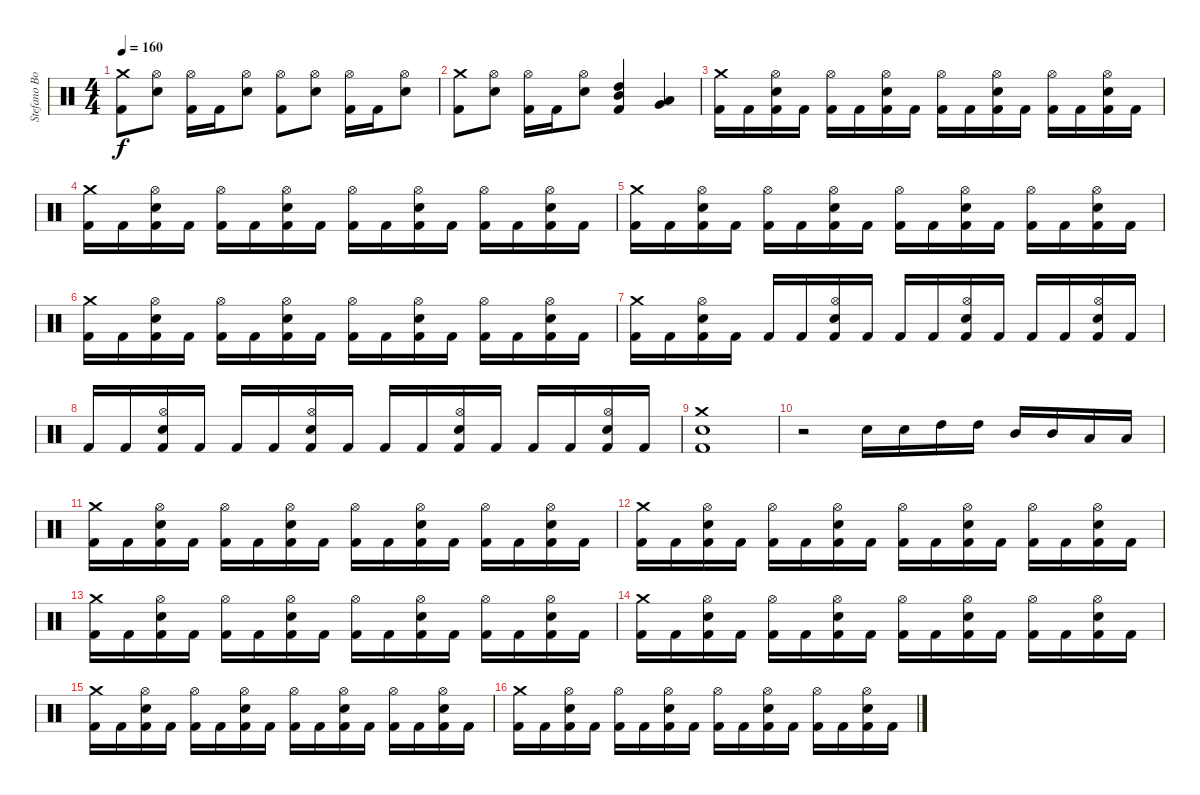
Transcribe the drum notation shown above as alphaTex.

\track ("Stefano Bonini" "Stefano Bo") {instrument percussion}
\staff {score}
\articulation defaults
\ts (4 4)
\tempo 160
\clef neutral
\ks c
("Crash medium (hit)" "Kick (hit) 2").8{dy f} ("Hi-Hat (open)" "Snare (hit) 2").8 ("Hi-Hat (open)" "Kick (hit) 2").16 "Kick (hit) 2".16 ("Hi-Hat (open)" "Snare (hit) 2").8 ("Hi-Hat (open)" "Kick (hit) 2").8 ("Hi-Hat (open)" "Snare (hit) 2").8 ("Hi-Hat (open)" "Kick (hit) 2").16 "Kick (hit) 2".16 ("Hi-Hat (open)" "Snare (hit) 2").8 |
("Crash medium (hit)" "Kick (hit) 2").8 ("Hi-Hat (open)" "Snare (hit) 2").8 ("Hi-Hat (open)" "Kick (hit) 2").16 "Kick (hit) 2".16 ("Hi-Hat (open)" "Snare (hit) 2").8 ("High Tom (hit)" "Mid Tom (hit)" "Kick (hit) 2").4 ("Very Low Tom (hit)" "Low Tom (hit)").4 |
("Crash medium (hit)" "Kick (hit) 2").16 "Kick (hit) 2".16 ("Hi-Hat (open)" "Snare (hit) 2" "Kick (hit) 2").16 "Kick (hit) 2".16 ("Hi-Hat (open)" "Kick (hit) 2").16 "Kick (hit) 2".16 ("Hi-Hat (open)" "Snare (hit) 2" "Kick (hit) 2").16 "Kick (hit) 2".16 ("Hi-Hat (open)" "Kick (hit) 2").16 "Kick (hit) 2".16 ("Hi-Hat (open)" "Snare (hit) 2" "Kick (hit) 2").16 "Kick (hit) 2".16 ("Hi-Hat (open)" "Kick (hit) 2").16 "Kick (hit) 2".16 ("Hi-Hat (open)" "Snare (hit) 2" "Kick (hit) 2").16 "Kick (hit) 2".16 |
("Crash medium (hit)" "Kick (hit) 2").16 "Kick (hit) 2".16 ("Hi-Hat (open)" "Snare (hit) 2" "Kick (hit) 2").16 "Kick (hit) 2".16 ("Hi-Hat (open)" "Kick (hit) 2").16 "Kick (hit) 2".16 ("Hi-Hat (open)" "Snare (hit) 2" "Kick (hit) 2").16 "Kick (hit) 2".16 ("Hi-Hat (open)" "Kick (hit) 2").16 "Kick (hit) 2".16 ("Hi-Hat (open)" "Snare (hit) 2" "Kick (hit) 2").16 "Kick (hit) 2".16 ("Hi-Hat (open)" "Kick (hit) 2").16 "Kick (hit) 2".16 ("Hi-Hat (open)" "Snare (hit) 2" "Kick (hit) 2").16 "Kick (hit) 2".16 |
("Crash medium (hit)" "Kick (hit) 2").16 "Kick (hit) 2".16 ("Hi-Hat (open)" "Snare (hit) 2" "Kick (hit) 2").16 "Kick (hit) 2".16 ("Hi-Hat (open)" "Kick (hit) 2").16 "Kick (hit) 2".16 ("Hi-Hat (open)" "Snare (hit) 2" "Kick (hit) 2").16 "Kick (hit) 2".16 ("Hi-Hat (open)" "Kick (hit) 2").16 "Kick (hit) 2".16 ("Hi-Hat (open)" "Snare (hit) 2" "Kick (hit) 2").16 "Kick (hit) 2".16 ("Hi-Hat (open)" "Kick (hit) 2").16 "Kick (hit) 2".16 ("Hi-Hat (open)" "Snare (hit) 2" "Kick (hit) 2").16 "Kick (hit) 2".16 |
("Crash medium (hit)" "Kick (hit) 2").16 "Kick (hit) 2".16 ("Hi-Hat (open)" "Snare (hit) 2" "Kick (hit) 2").16 "Kick (hit) 2".16 ("Hi-Hat (open)" "Kick (hit) 2").16 "Kick (hit) 2".16 ("Hi-Hat (open)" "Snare (hit) 2" "Kick (hit) 2").16 "Kick (hit) 2".16 ("Hi-Hat (open)" "Kick (hit) 2").16 "Kick (hit) 2".16 ("Hi-Hat (open)" "Snare (hit) 2" "Kick (hit) 2").16 "Kick (hit) 2".16 ("Hi-Hat (open)" "Kick (hit) 2").16 "Kick (hit) 2".16 ("Hi-Hat (open)" "Snare (hit) 2" "Kick (hit) 2").16 "Kick (hit) 2".16 |
("Crash medium (hit)" "Kick (hit) 2").16 "Kick (hit) 2".16 ("Hi-Hat (open)" "Snare (hit) 2" "Kick (hit) 2").16 "Kick (hit) 2".16 "Kick (hit) 2".16 "Kick (hit) 2".16 ("Hi-Hat (open)" "Snare (hit) 2" "Kick (hit) 2").16 "Kick (hit) 2".16 "Kick (hit) 2".16 "Kick (hit) 2".16 ("Hi-Hat (open)" "Snare (hit) 2" "Kick (hit) 2").16 "Kick (hit) 2".16 "Kick (hit) 2".16 "Kick (hit) 2".16 ("Hi-Hat (open)" "Snare (hit) 2" "Kick (hit) 2").16 "Kick (hit) 2".16 |
"Kick (hit) 2".16 "Kick (hit) 2".16 ("Hi-Hat (open)" "Snare (hit) 2" "Kick (hit) 2").16 "Kick (hit) 2".16 "Kick (hit) 2".16 "Kick (hit) 2".16 ("Hi-Hat (open)" "Snare (hit) 2" "Kick (hit) 2").16 "Kick (hit) 2".16 "Kick (hit) 2".16 "Kick (hit) 2".16 ("Hi-Hat (open)" "Snare (hit) 2" "Kick (hit) 2").16 "Kick (hit) 2".16 "Kick (hit) 2".16 "Kick (hit) 2".16 ("Hi-Hat (open)" "Snare (hit) 2" "Kick (hit) 2").16 "Kick (hit) 2".16 |
("Crash medium (hit)" "Snare (hit) 2" "Kick (hit) 2").1 |
r.2 "Snare (hit) 2".16 "Snare (hit) 2".16 "High Tom (hit)".16 "High Tom (hit)".16 "Mid Tom (hit)".16 "Mid Tom (hit)".16 "Low Tom (hit)".16 "Low Tom (hit)".16 |
("Crash medium (hit)" "Kick (hit) 2").16 "Kick (hit) 2".16 ("Hi-Hat (open)" "Snare (hit) 2" "Kick (hit) 2").16 "Kick (hit) 2".16 ("Hi-Hat (open)" "Kick (hit) 2").16 "Kick (hit) 2".16 ("Hi-Hat (open)" "Snare (hit) 2" "Kick (hit) 2").16 "Kick (hit) 2".16 ("Hi-Hat (open)" "Kick (hit) 2").16 "Kick (hit) 2".16 ("Hi-Hat (open)" "Snare (hit) 2" "Kick (hit) 2").16 "Kick (hit) 2".16 ("Hi-Hat (open)" "Kick (hit) 2").16 "Kick (hit) 2".16 ("Hi-Hat (open)" "Snare (hit) 2" "Kick (hit) 2").16 "Kick (hit) 2".16 |
("Crash medium (hit)" "Kick (hit) 2").16 "Kick (hit) 2".16 ("Hi-Hat (open)" "Snare (hit) 2" "Kick (hit) 2").16 "Kick (hit) 2".16 ("Hi-Hat (open)" "Kick (hit) 2").16 "Kick (hit) 2".16 ("Hi-Hat (open)" "Snare (hit) 2" "Kick (hit) 2").16 "Kick (hit) 2".16 ("Hi-Hat (open)" "Kick (hit) 2").16 "Kick (hit) 2".16 ("Hi-Hat (open)" "Snare (hit) 2" "Kick (hit) 2").16 "Kick (hit) 2".16 ("Hi-Hat (open)" "Kick (hit) 2").16 "Kick (hit) 2".16 ("Hi-Hat (open)" "Snare (hit) 2" "Kick (hit) 2").16 "Kick (hit) 2".16 |
("Crash medium (hit)" "Kick (hit) 2").16 "Kick (hit) 2".16 ("Hi-Hat (open)" "Snare (hit) 2" "Kick (hit) 2").16 "Kick (hit) 2".16 ("Hi-Hat (open)" "Kick (hit) 2").16 "Kick (hit) 2".16 ("Hi-Hat (open)" "Snare (hit) 2" "Kick (hit) 2").16 "Kick (hit) 2".16 ("Hi-Hat (open)" "Kick (hit) 2").16 "Kick (hit) 2".16 ("Hi-Hat (open)" "Snare (hit) 2" "Kick (hit) 2").16 "Kick (hit) 2".16 ("Hi-Hat (open)" "Kick (hit) 2").16 "Kick (hit) 2".16 ("Hi-Hat (open)" "Snare (hit) 2" "Kick (hit) 2").16 "Kick (hit) 2".16 |
("Crash medium (hit)" "Kick (hit) 2").16 "Kick (hit) 2".16 ("Hi-Hat (open)" "Snare (hit) 2" "Kick (hit) 2").16 "Kick (hit) 2".16 ("Hi-Hat (open)" "Kick (hit) 2").16 "Kick (hit) 2".16 ("Hi-Hat (open)" "Snare (hit) 2" "Kick (hit) 2").16 "Kick (hit) 2".16 ("Hi-Hat (open)" "Kick (hit) 2").16 "Kick (hit) 2".16 ("Hi-Hat (open)" "Snare (hit) 2" "Kick (hit) 2").16 "Kick (hit) 2".16 ("Hi-Hat (open)" "Kick (hit) 2").16 "Kick (hit) 2".16 ("Hi-Hat (open)" "Snare (hit) 2" "Kick (hit) 2").16 "Kick (hit) 2".16 |
("Crash medium (hit)" "Kick (hit) 2").16 "Kick (hit) 2".16 ("Hi-Hat (open)" "Snare (hit) 2" "Kick (hit) 2").16 "Kick (hit) 2".16 ("Hi-Hat (open)" "Kick (hit) 2").16 "Kick (hit) 2".16 ("Hi-Hat (open)" "Snare (hit) 2" "Kick (hit) 2").16 "Kick (hit) 2".16 ("Hi-Hat (open)" "Kick (hit) 2").16 "Kick (hit) 2".16 ("Hi-Hat (open)" "Snare (hit) 2" "Kick (hit) 2").16 "Kick (hit) 2".16 ("Hi-Hat (open)" "Kick (hit) 2").16 "Kick (hit) 2".16 ("Hi-Hat (open)" "Snare (hit) 2" "Kick (hit) 2").16 "Kick (hit) 2".16 |
("Crash medium (hit)" "Kick (hit) 2").16 "Kick (hit) 2".16 ("Hi-Hat (open)" "Snare (hit) 2" "Kick (hit) 2").16 "Kick (hit) 2".16 ("Hi-Hat (open)" "Kick (hit) 2").16 "Kick (hit) 2".16 ("Hi-Hat (open)" "Snare (hit) 2" "Kick (hit) 2").16 "Kick (hit) 2".16 ("Hi-Hat (open)" "Kick (hit) 2").16 "Kick (hit) 2".16 ("Hi-Hat (open)" "Snare (hit) 2" "Kick (hit) 2").16 "Kick (hit) 2".16 ("Hi-Hat (open)" "Kick (hit) 2").16 "Kick (hit) 2".16 ("Hi-Hat (open)" "Snare (hit) 2" "Kick (hit) 2").16 "Kick (hit) 2".16
